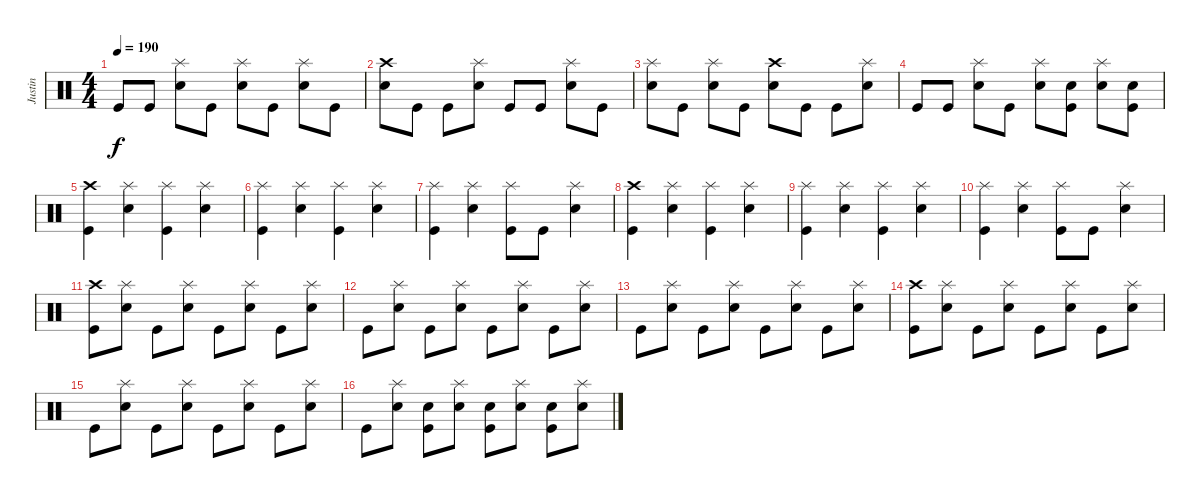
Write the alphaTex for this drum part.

\track ("Justin" "Justin") {instrument percussion}
\staff {score}
\articulation defaults
\ts (4 4)
\tempo 190
\clef neutral
\ks c "Kick (hit)".8{dy f} "Kick (hit)".8
("Splash (hit)" "Electric Snare (hit)").8 "Kick (hit)".8 ("Splash (hit)" "Electric Snare (hit)").8 "Kick (hit)".8 ("Splash (hit)" "Electric Snare (hit)").8 "Kick (hit)".8 |
("Crash high (hit)" "Electric Snare (hit)").8 "Kick (hit)".8 "Kick (hit)".8 ("Splash (hit)" "Electric Snare (hit)").8 "Kick (hit)".8 "Kick (hit)".8 ("Splash (hit)" "Electric Snare (hit)").8 "Kick (hit)".8 |
("Splash (hit)" "Electric Snare (hit)").8 "Kick (hit)".8 ("Splash (hit)" "Electric Snare (hit)").8 "Kick (hit)".8 ("Crash high (hit)" "Electric Snare (hit)").8 "Kick (hit)".8 "Kick (hit)".8 ("Splash (hit)" "Electric Snare (hit)").8 |
"Kick (hit)".8 "Kick (hit)".8 ("Splash (hit)" "Electric Snare (hit)").8 "Kick (hit)".8 ("Splash (hit)" "Electric Snare (hit)").8 ("Electric Snare (hit)" "Kick (hit)").8 ("Splash (hit)" "Electric Snare (hit)").8 ("Electric Snare (hit)" "Kick (hit)").8 |
("Crash high (hit)" "Kick (hit)").4 ("Splash (hit)" "Electric Snare (hit)").4 ("Splash (hit)" "Kick (hit)").4 ("Splash (hit)" "Electric Snare (hit)").4 |
("Splash (hit)" "Kick (hit)").4 ("Splash (hit)" "Electric Snare (hit)").4 ("Splash (hit)" "Kick (hit)").4 ("Splash (hit)" "Electric Snare (hit)").4 |
("Splash (hit)" "Kick (hit)").4 ("Splash (hit)" "Electric Snare (hit)").4 ("Splash (hit)" "Kick (hit)").8 "Kick (hit)".8 ("Splash (hit)" "Electric Snare (hit)").4 |
("Crash high (hit)" "Kick (hit)").4 ("Splash (hit)" "Electric Snare (hit)").4 ("Splash (hit)" "Kick (hit)").4 ("Splash (hit)" "Electric Snare (hit)").4 |
("Splash (hit)" "Kick (hit)").4 ("Splash (hit)" "Electric Snare (hit)").4 ("Splash (hit)" "Kick (hit)").4 ("Splash (hit)" "Electric Snare (hit)").4 |
("Splash (hit)" "Kick (hit)").4 ("Splash (hit)" "Electric Snare (hit)").4 ("Splash (hit)" "Kick (hit)").8 "Kick (hit)".8 ("Splash (hit)" "Electric Snare (hit)").4 |
("Crash high (hit)" "Kick (hit)").8 ("Splash (hit)" "Electric Snare (hit)").8 "Kick (hit)".8 ("Splash (hit)" "Electric Snare (hit)").8 "Kick (hit)".8 ("Splash (hit)" "Electric Snare (hit)").8 "Kick (hit)".8 ("Splash (hit)" "Electric Snare (hit)").8 |
"Kick (hit)".8 ("Splash (hit)" "Electric Snare (hit)").8 "Kick (hit)".8 ("Splash (hit)" "Electric Snare (hit)").8 "Kick (hit)".8 ("Splash (hit)" "Electric Snare (hit)").8 "Kick (hit)".8 ("Splash (hit)" "Electric Snare (hit)").8 |
"Kick (hit)".8 ("Splash (hit)" "Electric Snare (hit)").8 "Kick (hit)".8 ("Splash (hit)" "Electric Snare (hit)").8 "Kick (hit)".8 ("Splash (hit)" "Electric Snare (hit)").8 "Kick (hit)".8 ("Splash (hit)" "Electric Snare (hit)").8 |
("Crash high (hit)" "Kick (hit)").8 ("Splash (hit)" "Electric Snare (hit)").8 "Kick (hit)".8 ("Splash (hit)" "Electric Snare (hit)").8 "Kick (hit)".8 ("Splash (hit)" "Electric Snare (hit)").8 "Kick (hit)".8 ("Splash (hit)" "Electric Snare (hit)").8 |
"Kick (hit)".8 ("Splash (hit)" "Electric Snare (hit)").8 "Kick (hit)".8 ("Splash (hit)" "Electric Snare (hit)").8 "Kick (hit)".8 ("Splash (hit)" "Electric Snare (hit)").8 "Kick (hit)".8 ("Splash (hit)" "Electric Snare (hit)").8 |
"Kick (hit)".8 ("Splash (hit)" "Electric Snare (hit)").8 ("Electric Snare (hit)" "Kick (hit)").8 ("Splash (hit)" "Electric Snare (hit)").8 ("Electric Snare (hit)" "Kick (hit)").8 ("Splash (hit)" "Electric Snare (hit)").8 ("Electric Snare (hit)" "Kick (hit)").8 ("Splash (hit)" "Electric Snare (hit)").8
